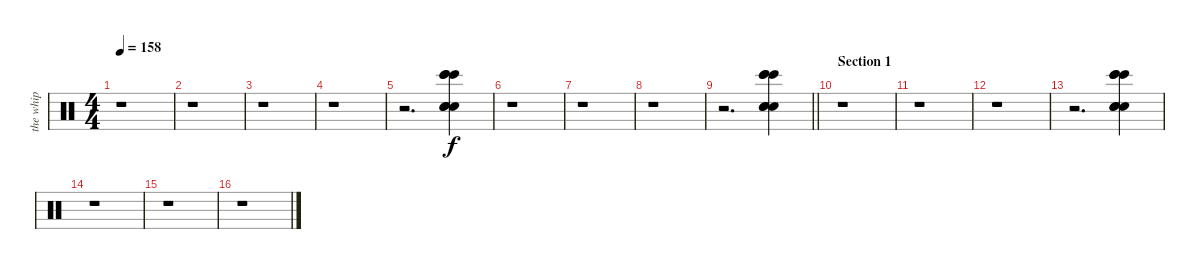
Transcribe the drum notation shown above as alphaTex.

\track ("the whip " "the whip ") {instrument percussion}
\staff {score}
\articulation defaults
\ts (4 4)
\tempo 158
\clef neutral
\ks c
r.1{dy f} |
r.1 |
r.1 |
r.1 |
r.2{d} ("Hand Clap (hit)" "Hand Clap (hit)" "Hand Clap (hit)" "Bongo High (hit)" "Bongo High (hit)" "Bongo High (hit)").4 |
r.1 |
r.1 |
r.1 |
\barLineRight lightlight
r.2{d} ("Hand Clap (hit)" "Hand Clap (hit)" "Hand Clap (hit)" "Bongo High (hit)" "Bongo High (hit)" "Bongo High (hit)").4 |
\section ("" "Section 1")
r.1 |
r.1 |
r.1 |
r.2{d} ("Hand Clap (hit)" "Hand Clap (hit)" "Hand Clap (hit)" "Bongo High (hit)" "Bongo High (hit)" "Bongo High (hit)").4 |
r.1 |
r.1 |
r.1
